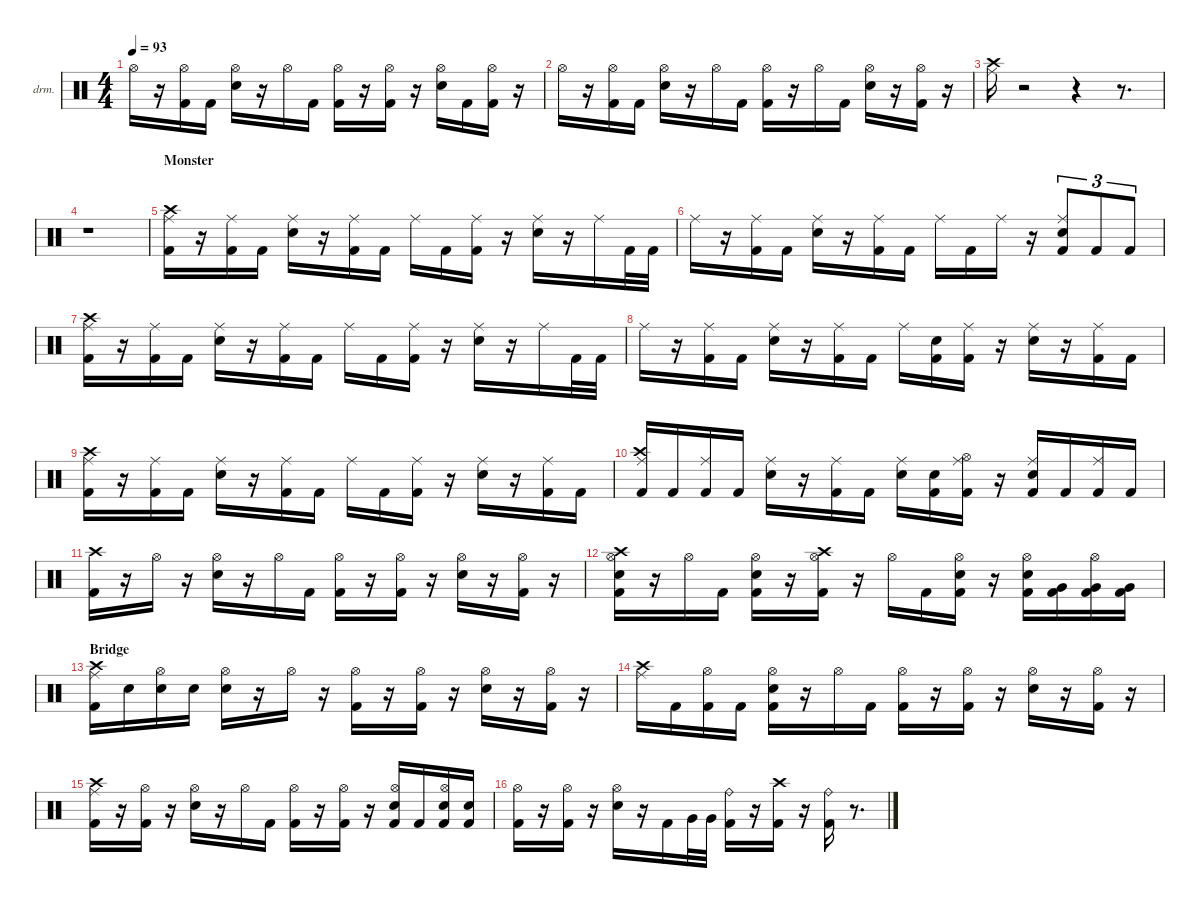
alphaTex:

\defaultSystemsLayout 2
\hideDynamics
\bracketExtendMode nobrackets
\firstSystemTrackNameOrientation horizontal
\otherSystemsTrackNameOrientation horizontal
\track ("Drumkit" "drm.") {instrument percussion}
\staff {score}
\articulation defaults
\ts (4 4)
\scale
1.03043
\tempo 93
\accidentals auto
\clef neutral
\ottava regular
\simile none
\ks c "Hi-Hat (open)"{acc #}.16{dy mf beam Down}
r.16{beam Down} ("Kick (hit) 2" "Hi-Hat (open)"{acc #}).16{beam Down} "Kick (hit) 2".16{beam Down} ("Hi-Hat (open)"{acc #} "Snare (hit) 2").16{beam Down} r.16{beam Down} "Hi-Hat (open)"{acc #}.16{beam Down} "Kick (hit) 2".16{beam Down} ("Hi-Hat (open)"{acc #} "Kick (hit) 2").16{beam Down} r.16{beam Down} ("Hi-Hat (open)"{acc #} "Kick (hit) 2").16{beam Down} r.16{beam Down} ("Snare (hit) 2" "Hi-Hat (open)"{acc #}).16{beam Down} "Kick (hit) 2".16{beam Down} ("Hi-Hat (open)"{acc #} "Kick (hit) 2").16{beam Down} r.16{beam Down} |
\scale
0.969568 "Hi-Hat (open)"{acc #}.16{beam Down} r.16{beam Down} ("Hi-Hat (open)"{acc #} "Kick (hit) 2").16{beam Down} "Kick (hit) 2".16{beam Down} ("Snare (hit) 2" "Hi-Hat (open)"{acc #}).16{beam Down} r.16{beam Down} "Hi-Hat (open)"{acc #}.16{beam Down} "Kick (hit) 2".16{beam Down} ("Kick (hit) 2" "Hi-Hat (open)"{acc #}).16{beam Down} r.16{beam Down} "Hi-Hat (open)"{acc #}.16{beam Down} "Kick (hit) 2".16{beam Down} ("Hi-Hat (open)"{acc #} "Snare (hit) 2").16{beam Down} r.16{beam Down} ("Kick (hit) 2" "Hi-Hat (open)"{acc #}).16{beam Down} r.16{beam Down} |
\scale
1.02601 ("Ride (middle)"{acc #} "Crash high (hit)"{acc #}).16{beam Down} r.2{beam Down} r.4{beam Down} r.8{d beam Down} |
\scale
0.973989 r.1{beam Down} |
\section ("" "Monster")
\scale
1.03043 ("Ride (middle)"{acc #} "Kick (hit) 2" "Crash high (hit)"{acc #}).16{beam Down} r.16{beam Down} ("Kick (hit) 2" "Ride (middle)"{acc #}).16{beam Down} "Kick (hit) 2".16{beam Down} ("Snare (hit) 2" "Ride (middle)"{acc #}).16{beam Down} r.16{beam Down} ("Ride (middle)"{acc #} "Kick (hit) 2").16{beam Down} "Kick (hit) 2".16{beam Down} "Ride (middle)"{acc #}.16{beam Down} "Kick (hit) 2".16{beam Down} ("Kick (hit) 2" "Ride (middle)"{acc #}).16{beam Down} r.16{beam Down} ("Ride (middle)"{acc #} "Snare (hit) 2").16{beam Down} r.16{beam Down} "Ride (middle)"{acc #}.16{beam Down} "Kick (hit) 2".32{beam Down} "Kick (hit) 2".32{beam Down} |
\scale
0.969568 "Ride (middle)"{acc #}.16{beam Down} r.16{beam Down} ("Kick (hit) 2" "Ride (middle)"{acc #}).16{beam Down} "Kick (hit) 2".16{beam Down} ("Snare (hit) 2" "Ride (middle)"{acc #}).16{beam Down} r.16{beam Down} ("Kick (hit) 2" "Ride (middle)"{acc #}).16{beam Down} "Kick (hit) 2".16{beam Down} "Ride (middle)"{acc #}.16{beam Down} "Kick (hit) 2".16{beam Down} "Ride (middle)"{acc #}.16{beam Down} r.16{beam Down} ("Ride (middle)"{acc #} "Snare (hit) 2" "Kick (hit) 2").8{tu (3 2) beam Up} "Kick (hit) 2".8{tu (3 2) beam Up} "Kick (hit) 2".8{tu (3 2) beam Up} |
\scale
1.03043 ("Crash high (hit)"{acc #} "Kick (hit) 2" "Ride (middle)"{acc #}).16{beam Down} r.16{beam Down} ("Kick (hit) 2" "Ride (middle)"{acc #}).16{beam Down} "Kick (hit) 2".16{beam Down} ("Ride (middle)"{acc #} "Snare (hit) 2").16{beam Down} r.16{beam Down} ("Kick (hit) 2" "Ride (middle)"{acc #}).16{beam Down} "Kick (hit) 2".16{beam Down} "Ride (middle)"{acc #}.16{beam Down} "Kick (hit) 2".16{beam Down} ("Ride (middle)"{acc #} "Kick (hit) 2").16{beam Down} r.16{beam Down} ("Snare (hit) 2" "Ride (middle)"{acc #}).16{beam Down} r.16{beam Down} "Ride (middle)"{acc #}.16{beam Down} "Kick (hit) 2".32{beam Down} "Kick (hit) 2".32{beam Down} |
\scale
0.969568 "Ride (middle)"{acc #}.16{beam Down} r.16{beam Down} ("Kick (hit) 2" "Ride (middle)"{acc #}).16{beam Down} "Kick (hit) 2".16{beam Down} ("Snare (hit) 2" "Ride (middle)"{acc #}).16{beam Down} r.16{beam Down} ("Kick (hit) 2" "Ride (middle)"{acc #}).16{beam Down} "Kick (hit) 2".16{beam Down} "Ride (middle)"{acc #}.16{beam Down} ("Kick (hit) 2" "Snare (hit) 2").16{beam Down} ("Kick (hit) 2" "Ride (middle)"{acc #}).16{beam Down} r.16{beam Down} ("Ride (middle)"{acc #} "Snare (hit) 2").16{beam Down} r.16{beam Down} ("Kick (hit) 2" "Ride (middle)"{acc #}).16{beam Down} "Kick (hit) 2".16{beam Down} |
\scale
1.03043 ("Crash high (hit)"{acc #} "Kick (hit) 2" "Ride (middle)"{acc #}).16{beam Down} r.16{beam Down} ("Kick (hit) 2" "Ride (middle)"{acc #}).16{beam Down} "Kick (hit) 2".16{beam Down} ("Ride (middle)"{acc #} "Snare (hit) 2").16{beam Down} r.16{beam Down} ("Kick (hit) 2" "Ride (middle)"{acc #}).16{beam Down} "Kick (hit) 2".16{beam Down} "Ride (middle)"{acc #}.16{beam Down} "Kick (hit) 2".16{beam Down} ("Kick (hit) 2" "Ride (middle)"{acc #}).16{beam Down} r.16{beam Down} ("Snare (hit) 2" "Ride (middle)"{acc #}).16{beam Down} r.16{beam Down} ("Ride (middle)"{acc #} "Kick (hit) 2").16{beam Down} "Kick (hit) 2".16{beam Down} |
\scale
0.969568 ("Ride (middle)"{acc #} "Crash high (hit)"{acc #} "Kick (hit) 2").16{beam Up} "Kick (hit) 2".16{beam Up} ("Kick (hit) 2" "Ride (middle)"{acc #}).16{beam Up} "Kick (hit) 2".16{beam Up} ("Snare (hit) 2" "Ride (middle)"{acc #}).16{beam Down} r.16{beam Down} ("Kick (hit) 2" "Ride (middle)"{acc #}).16{beam Down} "Kick (hit) 2".16{beam Down} ("Snare (hit) 2" "Ride (middle)"{acc #}).16{beam Down} ("Snare (hit) 2" "Kick (hit) 2").16{beam Down} ("Hi-Hat (open)"{acc #} "Kick (hit) 2" "Ride (middle)"{acc #}).16{beam Down} r.16{beam Down} ("Snare (hit) 2" "Ride (middle)"{acc #} "Kick (hit) 2").16{beam Up} "Kick (hit) 2".16{beam Up} ("Ride (middle)"{acc #} "Kick (hit) 2").16{beam Up} "Kick (hit) 2".16{beam Up} |
\scale
1.03043 ("Crash high (hit)"{acc #} "Kick (hit) 2").16{beam Down} r.16{beam Down} "Hi-Hat (open)"{acc #}.16{beam Down} r.16{beam Down} ("Hi-Hat (open)"{acc #} "Snare (hit) 2").16{beam Down} r.16{beam Down} "Hi-Hat (open)"{acc #}.16{beam Down} "Kick (hit) 2".16{beam Down} ("Kick (hit) 2" "Hi-Hat (open)"{acc #}).16{beam Down} r.16{beam Down} ("Kick (hit) 2" "Hi-Hat (open)"{acc #}).16{beam Down} r.16{beam Down} ("Hi-Hat (open)"{acc #} "Snare (hit) 2").16{beam Down} r.16{beam Down} ("Kick (hit) 2" "Hi-Hat (open)"{acc #}).16{beam Down} r.16{beam Down} |
\scale
0.969568 ("Hi-Hat (open)"{acc #} "Snare (hit) 2" "Crash high (hit)"{acc #} "Kick (hit) 2").16{beam Down} r.16{beam Down} "Hi-Hat (open)"{acc #}.16{beam Down} "Kick (hit) 2".16{beam Down} ("Kick (hit) 2" "Snare (hit) 2" "Hi-Hat (open)"{acc #}).16{beam Down} r.16{beam Down} ("Crash high (hit)"{acc #} "Hi-Hat (open)"{acc #} "Kick (hit) 2").16{beam Down} r.16{beam Down} "Hi-Hat (open)"{acc #}.16{beam Down} "Kick (hit) 2".16{beam Down} ("Snare (hit) 2" "Kick (hit) 2" "Hi-Hat (open)"{acc #}).16{beam Down} r.16{beam Down} ("Kick (hit) 2" "Hi-Hat (open)"{acc #} "Snare (hit) 2").16{beam Down} ("Kick (hit) 2" "Very Low Tom (hit)").16{beam Down} ("Hi-Hat (open)"{acc #} "Kick (hit) 2" "Very Low Tom (hit)").16{beam Down} ("Kick (hit) 2" "Very Low Tom (hit)").16{beam Down} |
\section ("" "Bridge")
\scale
1.03043 ("Ride (middle)"{acc #} "Crash high (hit)"{acc #} "Kick (hit) 2").16{beam Down} "Snare (hit) 2".16{beam Down} ("Hi-Hat (open)"{acc #} "Snare (hit) 2").16{beam Down} "Snare (hit) 2".16{beam Down} ("Hi-Hat (open)"{acc #} "Snare (hit) 2").16{beam Down} r.16{beam Down} "Hi-Hat (open)"{acc #}.16{beam Down} r.16{beam Down} ("Hi-Hat (open)"{acc #} "Kick (hit) 2").16{beam Down} r.16{beam Down} ("Hi-Hat (open)"{acc #} "Kick (hit) 2").16{beam Down} r.16{beam Down} ("Hi-Hat (open)"{acc #} "Snare (hit) 2").16{beam Down} r.16{beam Down} ("Kick (hit) 2" "Hi-Hat (open)"{acc #}).16{beam Down} r.16{beam Down} |
\scale
0.969568 ("Crash high (hit)"{acc #} "Ride (middle)"{acc #}).16{beam Down} "Kick (hit) 2".16{beam Down} ("Kick (hit) 2" "Hi-Hat (open)"{acc #}).16{beam Down} "Kick (hit) 2".16{beam Down} ("Snare (hit) 2" "Hi-Hat (open)"{acc #} "Kick (hit) 2").16{beam Down} r.16{beam Down} "Hi-Hat (open)"{acc #}.16{beam Down} "Kick (hit) 2".16{beam Down} ("Kick (hit) 2" "Hi-Hat (open)"{acc #}).16{beam Down} r.16{beam Down} ("Kick (hit) 2" "Hi-Hat (open)"{acc #}).16{beam Down} r.16{beam Down} ("Hi-Hat (open)"{acc #} "Snare (hit) 2").16{beam Down} r.16{beam Down} ("Kick (hit) 2" "Hi-Hat (open)"{acc #}).16{beam Down} r.16{beam Down} |
\scale
1.02601 ("Crash high (hit)"{acc #} "Ride (middle)"{acc #} "Kick (hit) 2").16{beam Down} r.16{beam Down} ("Kick (hit) 2" "Hi-Hat (open)"{acc #}).16{beam Down} r.16{beam Down} ("Hi-Hat (open)"{acc #} "Snare (hit) 2").16{beam Down} r.16{beam Down} "Hi-Hat (open)"{acc #}.16{beam Down} "Kick (hit) 2".16{beam Down} ("Hi-Hat (open)"{acc #} "Kick (hit) 2").16{beam Down} r.16{beam Down} ("Hi-Hat (open)"{acc #} "Kick (hit) 2").16{beam Down} r.16{beam Down} ("Kick (hit) 2" "Snare (hit) 2" "Hi-Hat (open)"{acc #}).16{beam Up} "Kick (hit) 2".16{beam Up} ("Snare (hit) 2" "Hi-Hat (open)"{acc #} "Kick (hit) 2").16{beam Up} ("Snare (hit) 2" "Kick (hit) 2").16{beam Up} |
\scale
0.973989 ("Kick (hit) 2" "Hi-Hat (open)"{acc #}).16{beam Down} r.16{beam Down} ("Hi-Hat (open)"{acc #} "Kick (hit) 2").16{beam Down} r.16{beam Down} ("Hi-Hat (open)"{acc #} "Snare (hit) 2").16{beam Down} r.16{beam Down} "Kick (hit) 2".16{beam Up} "Very Low Tom (hit)".32{beam Up} "Very Low Tom (hit)".32{beam Up} ("Kick (hit) 2" "Ride (bell)").16{beam Down} r.16{beam Down} ("Crash high (hit)"{acc #} "Kick (hit) 2").16{beam Down} r.16{beam Down} ("Kick (hit) 2" "Ride (bell)").16{beam Down} r.8{d beam Down}
